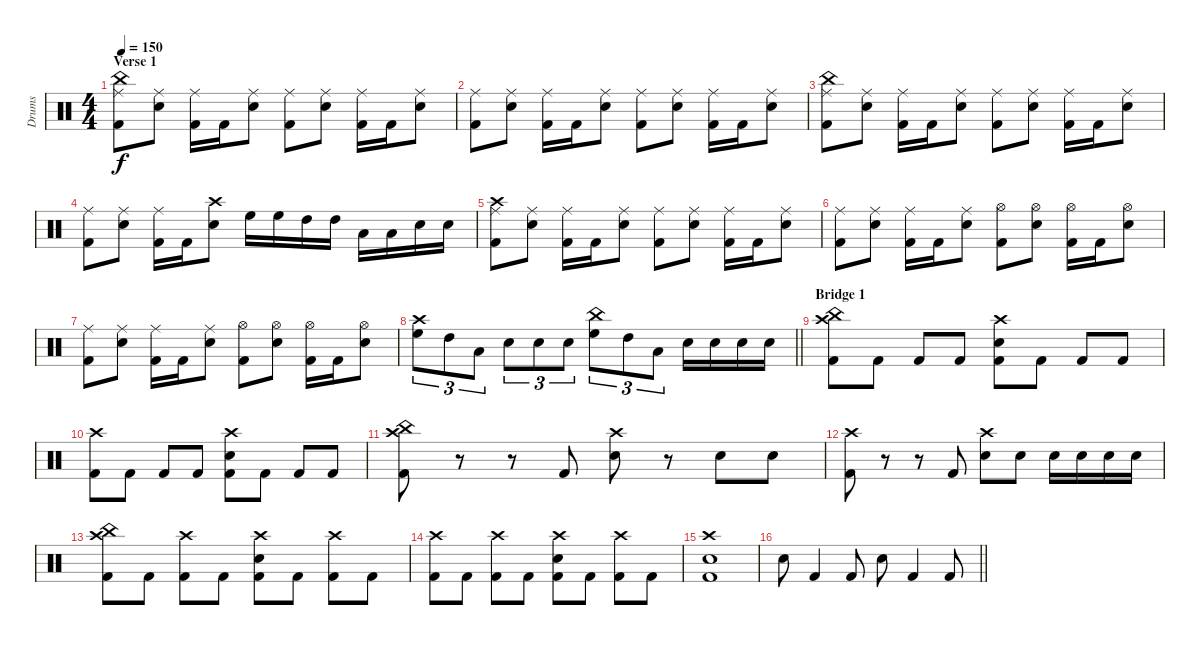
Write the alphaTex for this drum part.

\track ("Drums" "Drums") {instrument percussion}
\staff {score}
\articulation defaults
\ts (4 4)
\section ("" "Verse 1")
\tempo 150
\clef neutral
\ks c
("China (hit)" "Ride (middle)" "Kick (hit) 2").8{dy f} ("Ride (middle)" "Snare (hit) 2").8 ("Ride (middle)" "Kick (hit) 2").16 "Kick (hit) 2".16 ("Ride (middle)" "Snare (hit) 2").8 ("Ride (middle)" "Kick (hit) 2").8 ("Ride (middle)" "Snare (hit) 2").8 ("Ride (middle)" "Kick (hit) 2").16 "Kick (hit) 2".16 ("Ride (middle)" "Snare (hit) 2").8 |
("Ride (middle)" "Kick (hit) 2").8 ("Ride (middle)" "Snare (hit) 2").8 ("Ride (middle)" "Kick (hit) 2").16 "Kick (hit) 2".16 ("Ride (middle)" "Snare (hit) 2").8 ("Ride (middle)" "Kick (hit) 2").8 ("Ride (middle)" "Snare (hit) 2").8 ("Ride (middle)" "Kick (hit) 2").16 "Kick (hit) 2".16 ("Ride (middle)" "Snare (hit) 2").8 |
("China (hit)" "Ride (middle)" "Kick (hit) 2").8 ("Ride (middle)" "Snare (hit) 2").8 ("Ride (middle)" "Kick (hit) 2").16 "Kick (hit) 2".16 ("Ride (middle)" "Snare (hit) 2").8 ("Ride (middle)" "Kick (hit) 2").8 ("Ride (middle)" "Snare (hit) 2").8 ("Ride (middle)" "Kick (hit) 2").16 "Kick (hit) 2".16 ("Ride (middle)" "Snare (hit) 2").8 |
("Ride (middle)" "Kick (hit) 2").8 ("Ride (middle)" "Snare (hit) 2").8 ("Ride (middle)" "Kick (hit) 2").16 "Kick (hit) 2".16 ("Crash high (hit)" "Snare (hit) 2").8 "High Floor Tom (hit)".16 "High Floor Tom (hit)".16 "High Tom (hit)".16 "High Tom (hit)".16 "Low Tom (hit)".16 "Low Tom (hit)".16 "Snare (hit) 2".16 "Snare (hit) 2".16 |
("Crash high (hit)" "Ride (middle)" "Kick (hit) 2").8 ("Ride (middle)" "Snare (hit) 2").8 ("Ride (middle)" "Kick (hit) 2").16 "Kick (hit) 2".16 ("Ride (middle)" "Snare (hit) 2").8 ("Ride (middle)" "Kick (hit) 2").8 ("Ride (middle)" "Snare (hit) 2").8 ("Ride (middle)" "Kick (hit) 2").16 "Kick (hit) 2".16 ("Ride (middle)" "Snare (hit) 2").8 |
("Ride (middle)" "Kick (hit) 2").8 ("Ride (middle)" "Snare (hit) 2").8 ("Ride (middle)" "Kick (hit) 2").16 "Kick (hit) 2".16 ("Ride (middle)" "Snare (hit) 2").8 ("Hi-Hat (open)" "Kick (hit) 2").8 ("Hi-Hat (open)" "Snare (hit) 2").8 ("Hi-Hat (open)" "Kick (hit) 2").16 "Kick (hit) 2".16 ("Hi-Hat (open)" "Snare (hit) 2").8 |
("Ride (middle)" "Kick (hit) 2").8 ("Ride (middle)" "Snare (hit) 2").8 ("Ride (middle)" "Kick (hit) 2").16 "Kick (hit) 2".16 ("Ride (middle)" "Snare (hit) 2").8 ("Hi-Hat (open)" "Kick (hit) 2").8 ("Hi-Hat (open)" "Snare (hit) 2").8 ("Hi-Hat (open)" "Kick (hit) 2").16 "Kick (hit) 2".16 ("Hi-Hat (open)" "Snare (hit) 2").8 |
\barLineRight lightlight
("Crash high (hit)" "High Floor Tom (hit)").8{tu (3 2)} "High Tom (hit)".8{tu (3 2)} "Low Tom (hit)".8{tu (3 2)} "Snare (hit) 2".8{tu (3 2)} "Snare (hit) 2".8{tu (3 2)} "Snare (hit) 2".8{tu (3 2)} ("China (hit)" "High Floor Tom (hit)").8{tu (3 2)} "High Tom (hit)".8{tu (3 2)} "Low Tom (hit)".8{tu (3 2)} "Snare (hit) 2".16 "Snare (hit) 2".16 "Snare (hit) 2".16 "Snare (hit) 2".16 |
\section ("" "Bridge 1")
("Crash high (hit)" "China (hit)" "Kick (hit) 2").8 "Kick (hit) 2".8 "Kick (hit) 2".8 "Kick (hit) 2".8 ("Crash high (hit)" "Snare (hit) 2" "Kick (hit) 2").8 "Kick (hit) 2".8 "Kick (hit) 2".8 "Kick (hit) 2".8 |
("Crash high (hit)" "Kick (hit) 2").8 "Kick (hit) 2".8 "Kick (hit) 2".8 "Kick (hit) 2".8 ("Crash high (hit)" "Snare (hit) 2" "Kick (hit) 2").8 "Kick (hit) 2".8 "Kick (hit) 2".8 "Kick (hit) 2".8 |
("Crash high (hit)" "China (hit)" "Kick (hit) 2").8 r.8 r.8 "Kick (hit) 2".8 ("Crash high (hit)" "Snare (hit) 2").8 r.8 "Snare (hit) 2".8 "Snare (hit) 2".8 |
("Crash high (hit)" "Kick (hit) 2").8 r.8 r.8 "Kick (hit) 2".8 ("Crash high (hit)" "Snare (hit) 2").8 "Snare (hit) 2".8 "Snare (hit) 2".16 "Snare (hit) 2".16 "Snare (hit) 2".16 "Snare (hit) 2".16 |
("Crash high (hit)" "China (hit)" "Kick (hit) 2").8 "Kick (hit) 2".8 ("Crash high (hit)" "Kick (hit) 2").8 "Kick (hit) 2".8 ("Crash high (hit)" "Snare (hit) 2" "Kick (hit) 2").8 "Kick (hit) 2".8 ("Crash high (hit)" "Kick (hit) 2").8 "Kick (hit) 2".8 |
("Crash high (hit)" "Kick (hit) 2").8 "Kick (hit) 2".8 ("Crash high (hit)" "Kick (hit) 2").8 "Kick (hit) 2".8 ("Crash high (hit)" "Snare (hit) 2" "Kick (hit) 2").8 "Kick (hit) 2".8 ("Crash high (hit)" "Kick (hit) 2").8 "Kick (hit) 2".8 |
("Crash high (hit)" "Snare (hit) 2" "Kick (hit) 2").1 |
\barLineRight lightlight "Snare (hit) 2".8 "Kick (hit) 2".4 "Kick (hit) 2".8 "Snare (hit) 2".8 "Kick (hit) 2".4 "Kick (hit) 2".8
